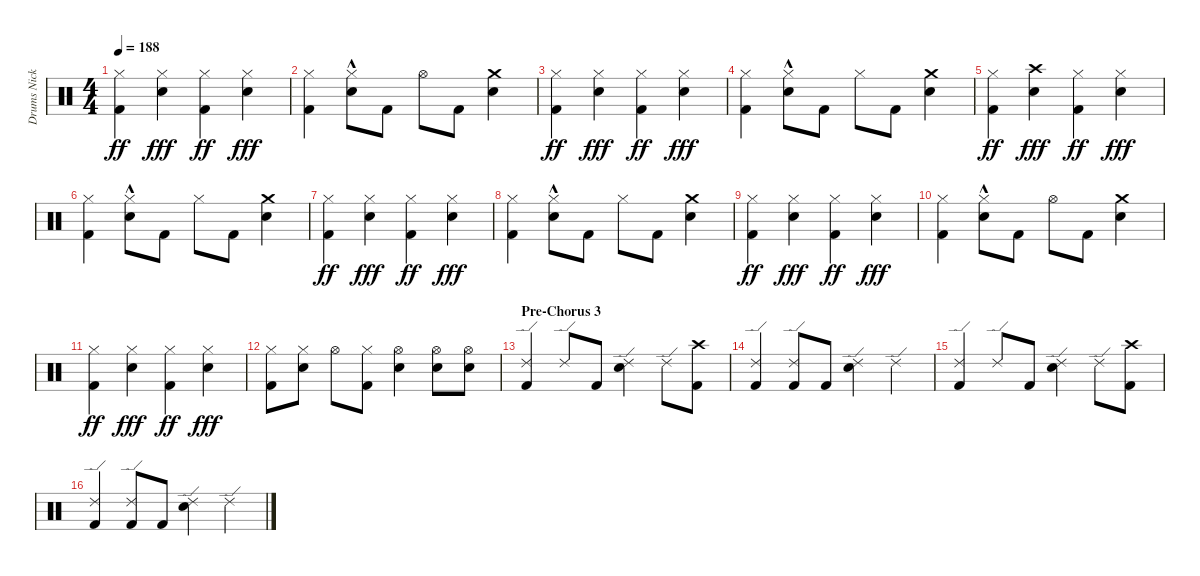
\track ("Drums Nicko McBrain" "Drums Nick") {instrument percussion}
\staff {score}
\articulation defaults
\ts (4 4)
\tempo 188
\clef neutral
\ks c
("Hi-Hat (closed)" "Kick (hit) 2").4{dy ff} ("Hi-Hat (closed)" "Electric Snare (hit)").4{dy fff} ("Hi-Hat (closed)" "Kick (hit) 2").4{dy ff} ("Hi-Hat (closed)" "Electric Snare (hit)").4{dy fff} |
("Hi-Hat (closed)" "Kick (hit) 2").4 ("Hi-Hat (closed)" "Electric Snare (hit)"{hac}).8 "Kick (hit) 2".8 "Hi-Hat (open)".8 "Kick (hit) 2".8 ("Crash medium (hit)" "Electric Snare (hit)").4 |
("Hi-Hat (closed)" "Kick (hit) 2").4{dy ff} ("Hi-Hat (closed)" "Electric Snare (hit)").4{dy fff} ("Hi-Hat (closed)" "Kick (hit) 2").4{dy ff} ("Hi-Hat (closed)" "Electric Snare (hit)").4{dy fff} |
("Hi-Hat (closed)" "Kick (hit) 2").4 ("Hi-Hat (closed)" "Electric Snare (hit)"{hac}).8 "Kick (hit) 2".8 "Hi-Hat (closed)".8 "Kick (hit) 2".8 ("Crash medium (hit)" "Electric Snare (hit)").4 |
("Hi-Hat (closed)" "Kick (hit) 2").4{dy ff} ("Crash high (hit)" "Electric Snare (hit)").4{dy fff} ("Hi-Hat (closed)" "Kick (hit) 2").4{dy ff} ("Hi-Hat (closed)" "Electric Snare (hit)").4{dy fff} |
("Hi-Hat (closed)" "Kick (hit) 2").4 ("Hi-Hat (closed)" "Electric Snare (hit)"{hac}).8 "Kick (hit) 2".8 "Hi-Hat (closed)".8 "Kick (hit) 2".8 ("Crash medium (hit)" "Electric Snare (hit)").4 |
("Hi-Hat (closed)" "Kick (hit) 2").4{dy ff} ("Hi-Hat (closed)" "Electric Snare (hit)").4{dy fff} ("Hi-Hat (closed)" "Kick (hit) 2").4{dy ff} ("Hi-Hat (closed)" "Electric Snare (hit)").4{dy fff} |
("Hi-Hat (closed)" "Kick (hit) 2").4 ("Hi-Hat (closed)" "Electric Snare (hit)"{hac}).8 "Kick (hit) 2".8 "Hi-Hat (closed)".8 "Kick (hit) 2".8 ("Crash medium (hit)" "Electric Snare (hit)").4 |
("Hi-Hat (closed)" "Kick (hit) 2").4{dy ff} ("Hi-Hat (closed)" "Electric Snare (hit)").4{dy fff} ("Hi-Hat (closed)" "Kick (hit) 2").4{dy ff} ("Hi-Hat (closed)" "Electric Snare (hit)").4{dy fff} |
("Hi-Hat (closed)" "Kick (hit) 2").4 ("Hi-Hat (closed)" "Electric Snare (hit)"{hac}).8 "Kick (hit) 2".8 "Hi-Hat (open)".8 "Kick (hit) 2".8 ("Crash medium (hit)" "Electric Snare (hit)").4 |
("Hi-Hat (closed)" "Kick (hit) 2").4{dy ff} ("Hi-Hat (closed)" "Electric Snare (hit)").4{dy fff} ("Hi-Hat (closed)" "Kick (hit) 2").4{dy ff} ("Hi-Hat (closed)" "Electric Snare (hit)").4{dy fff} |
("Hi-Hat (closed)" "Kick (hit) 2").8 ("Hi-Hat (closed)" "Electric Snare (hit)").8 "Hi-Hat (open)".8 ("Hi-Hat (closed)" "Kick (hit) 2").8 ("Hi-Hat (open)" "Electric Snare (hit)").4 ("Hi-Hat (open)" "Electric Snare (hit)").8 ("Hi-Hat (open)" "Electric Snare (hit)").8 |
\section ("" "Pre-Chorus 3")
("Ride (edge) 2" "Kick (hit) 2").4 "Ride (edge) 2".8 "Kick (hit) 2".8 ("Ride (edge) 2" "Electric Snare (hit)").4 "Ride (edge) 2".8 ("Crash high (hit)" "Kick (hit) 2").8 |
("Ride (edge) 2" "Kick (hit) 2").4 ("Ride (edge) 2" "Kick (hit) 2").8 "Kick (hit) 2".8 ("Ride (edge) 2" "Electric Snare (hit)").4 "Ride (edge) 2".4 |
("Ride (edge) 2" "Kick (hit) 2").4 "Ride (edge) 2".8 "Kick (hit) 2".8 ("Ride (edge) 2" "Electric Snare (hit)").4 "Ride (edge) 2".8 ("Crash high (hit)" "Kick (hit) 2").8 |
("Ride (edge) 2" "Kick (hit) 2").4 ("Ride (edge) 2" "Kick (hit) 2").8 "Kick (hit) 2".8 ("Ride (edge) 2" "Electric Snare (hit)").4 "Ride (edge) 2".4
